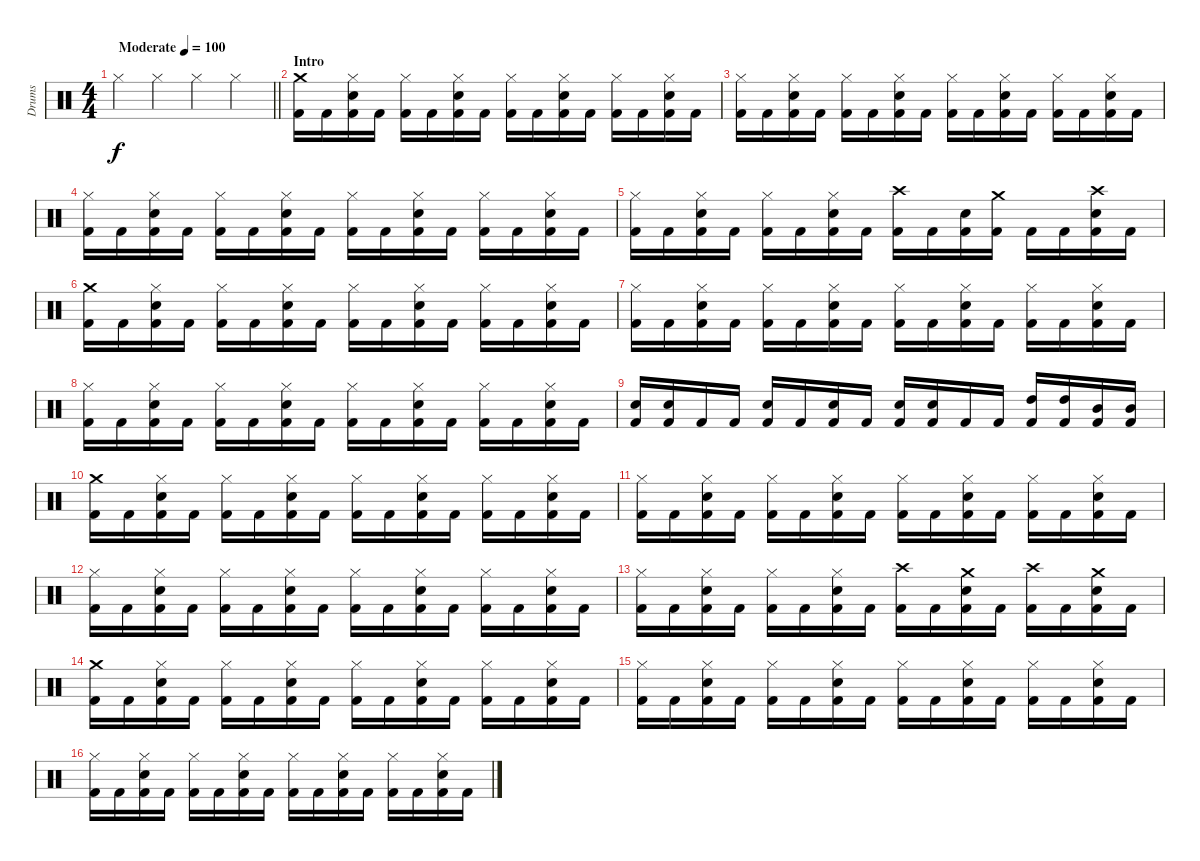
\track ("Drums" "Drums") {instrument percussion}
\staff {score}
\articulation defaults
\ts (4 4)
\tempo (100 "Moderate")
\tempo 144
\tempo (100 "Moderate")
\clef neutral
\barLineRight lightlight
\ks c "Hi-Hat (closed)".4{dy f} "Hi-Hat (closed)".4 "Hi-Hat (closed)".4 "Hi-Hat (closed)".4
|
\section ("" "Intro")
("Kick (hit) 2" "Crash medium (hit)").16 "Kick (hit) 2".16 ("Kick (hit) 2" "Snare (hit) 2" "Hi-Hat (closed)").16 "Kick (hit) 2".16 ("Kick (hit) 2" "Hi-Hat (closed)").16 "Kick (hit) 2".16 ("Kick (hit) 2" "Snare (hit) 2" "Hi-Hat (closed)").16 "Kick (hit) 2".16 ("Kick (hit) 2" "Hi-Hat (closed)").16 "Kick (hit) 2".16 ("Kick (hit) 2" "Snare (hit) 2" "Hi-Hat (closed)").16 "Kick (hit) 2".16 ("Kick (hit) 2" "Hi-Hat (closed)").16 "Kick (hit) 2".16 ("Kick (hit) 2" "Snare (hit) 2" "Hi-Hat (closed)").16 "Kick (hit) 2".16 |
("Kick (hit) 2" "Hi-Hat (closed)").16 "Kick (hit) 2".16 ("Kick (hit) 2" "Snare (hit) 2" "Hi-Hat (closed)").16 "Kick (hit) 2".16 ("Kick (hit) 2" "Hi-Hat (closed)").16 "Kick (hit) 2".16 ("Kick (hit) 2" "Snare (hit) 2" "Hi-Hat (closed)").16 "Kick (hit) 2".16 ("Kick (hit) 2" "Hi-Hat (closed)").16 "Kick (hit) 2".16 ("Kick (hit) 2" "Snare (hit) 2" "Hi-Hat (closed)").16 "Kick (hit) 2".16 ("Kick (hit) 2" "Hi-Hat (closed)").16 "Kick (hit) 2".16 ("Kick (hit) 2" "Snare (hit) 2" "Hi-Hat (closed)").16 "Kick (hit) 2".16 |
("Kick (hit) 2" "Hi-Hat (closed)").16 "Kick (hit) 2".16 ("Kick (hit) 2" "Snare (hit) 2" "Hi-Hat (closed)").16 "Kick (hit) 2".16 ("Kick (hit) 2" "Hi-Hat (closed)").16 "Kick (hit) 2".16 ("Kick (hit) 2" "Snare (hit) 2" "Hi-Hat (closed)").16 "Kick (hit) 2".16 ("Kick (hit) 2" "Hi-Hat (closed)").16 "Kick (hit) 2".16 ("Kick (hit) 2" "Snare (hit) 2" "Hi-Hat (closed)").16 "Kick (hit) 2".16 ("Kick (hit) 2" "Hi-Hat (closed)").16 "Kick (hit) 2".16 ("Kick (hit) 2" "Snare (hit) 2" "Hi-Hat (closed)").16 "Kick (hit) 2".16 |
("Kick (hit) 2" "Hi-Hat (closed)").16 "Kick (hit) 2".16 ("Kick (hit) 2" "Snare (hit) 2" "Hi-Hat (closed)").16 "Kick (hit) 2".16 ("Kick (hit) 2" "Hi-Hat (closed)").16 "Kick (hit) 2".16 ("Kick (hit) 2" "Snare (hit) 2" "Hi-Hat (closed)").16 "Kick (hit) 2".16 ("Kick (hit) 2" "Crash high (hit)").16 "Kick (hit) 2".16 ("Kick (hit) 2" "Snare (hit) 2").16 ("Kick (hit) 2" "Crash medium (hit)").16 "Kick (hit) 2".16 "Kick (hit) 2".16 ("Kick (hit) 2" "Snare (hit) 2" "Crash high (hit)").16 "Kick (hit) 2".16 |
("Kick (hit) 2" "Crash medium (hit)").16 "Kick (hit) 2".16 ("Kick (hit) 2" "Snare (hit) 2" "Hi-Hat (closed)").16 "Kick (hit) 2".16 ("Kick (hit) 2" "Hi-Hat (closed)").16 "Kick (hit) 2".16 ("Kick (hit) 2" "Snare (hit) 2" "Hi-Hat (closed)").16 "Kick (hit) 2".16 ("Kick (hit) 2" "Hi-Hat (closed)").16 "Kick (hit) 2".16 ("Kick (hit) 2" "Snare (hit) 2" "Hi-Hat (closed)").16 "Kick (hit) 2".16 ("Kick (hit) 2" "Hi-Hat (closed)").16 "Kick (hit) 2".16 ("Kick (hit) 2" "Snare (hit) 2" "Hi-Hat (closed)").16 "Kick (hit) 2".16 |
("Kick (hit) 2" "Hi-Hat (closed)").16 "Kick (hit) 2".16 ("Kick (hit) 2" "Snare (hit) 2" "Hi-Hat (closed)").16 "Kick (hit) 2".16 ("Kick (hit) 2" "Hi-Hat (closed)").16 "Kick (hit) 2".16 ("Kick (hit) 2" "Snare (hit) 2" "Hi-Hat (closed)").16 "Kick (hit) 2".16 ("Kick (hit) 2" "Hi-Hat (closed)").16 "Kick (hit) 2".16 ("Kick (hit) 2" "Snare (hit) 2" "Hi-Hat (closed)").16 "Kick (hit) 2".16 ("Kick (hit) 2" "Hi-Hat (closed)").16 "Kick (hit) 2".16 ("Kick (hit) 2" "Snare (hit) 2" "Hi-Hat (closed)").16 "Kick (hit) 2".16 |
("Kick (hit) 2" "Hi-Hat (closed)").16 "Kick (hit) 2".16 ("Kick (hit) 2" "Snare (hit) 2" "Hi-Hat (closed)").16 "Kick (hit) 2".16 ("Kick (hit) 2" "Hi-Hat (closed)").16 "Kick (hit) 2".16 ("Kick (hit) 2" "Snare (hit) 2" "Hi-Hat (closed)").16 "Kick (hit) 2".16 ("Kick (hit) 2" "Hi-Hat (closed)").16 "Kick (hit) 2".16 ("Kick (hit) 2" "Snare (hit) 2" "Hi-Hat (closed)").16 "Kick (hit) 2".16 ("Kick (hit) 2" "Hi-Hat (closed)").16 "Kick (hit) 2".16 ("Kick (hit) 2" "Snare (hit) 2" "Hi-Hat (closed)").16 "Kick (hit) 2".16 |
("Kick (hit) 2" "Snare (hit) 2").16 ("Kick (hit) 2" "Snare (hit) 2").16 "Kick (hit) 2".16 "Kick (hit) 2".16 ("Kick (hit) 2" "Snare (hit) 2").16 "Kick (hit) 2".16 ("Kick (hit) 2" "Snare (hit) 2").16 "Kick (hit) 2".16 ("Kick (hit) 2" "Snare (hit) 2").16 ("Kick (hit) 2" "Snare (hit) 2").16 "Kick (hit) 2".16 "Kick (hit) 2".16 ("Kick (hit) 2" "High Tom (hit)").16 ("Kick (hit) 2" "High Tom (hit)").16 ("Kick (hit) 2" "Mid Tom (hit)").16 ("Kick (hit) 2" "Mid Tom (hit)").16 |
("Kick (hit) 2" "Crash medium (hit)").16 "Kick (hit) 2".16 ("Kick (hit) 2" "Snare (hit) 2" "Hi-Hat (closed)").16 "Kick (hit) 2".16 ("Kick (hit) 2" "Hi-Hat (closed)").16 "Kick (hit) 2".16 ("Kick (hit) 2" "Snare (hit) 2" "Hi-Hat (closed)").16 "Kick (hit) 2".16 ("Kick (hit) 2" "Hi-Hat (closed)").16 "Kick (hit) 2".16 ("Kick (hit) 2" "Snare (hit) 2" "Hi-Hat (closed)").16 "Kick (hit) 2".16 ("Kick (hit) 2" "Hi-Hat (closed)").16 "Kick (hit) 2".16 ("Kick (hit) 2" "Snare (hit) 2" "Hi-Hat (closed)").16 "Kick (hit) 2".16 |
("Kick (hit) 2" "Hi-Hat (closed)").16 "Kick (hit) 2".16 ("Kick (hit) 2" "Snare (hit) 2" "Hi-Hat (closed)").16 "Kick (hit) 2".16 ("Kick (hit) 2" "Hi-Hat (closed)").16 "Kick (hit) 2".16 ("Kick (hit) 2" "Snare (hit) 2" "Hi-Hat (closed)").16 "Kick (hit) 2".16 ("Kick (hit) 2" "Hi-Hat (closed)").16 "Kick (hit) 2".16 ("Kick (hit) 2" "Snare (hit) 2" "Hi-Hat (closed)").16 "Kick (hit) 2".16 ("Kick (hit) 2" "Hi-Hat (closed)").16 "Kick (hit) 2".16 ("Kick (hit) 2" "Snare (hit) 2" "Hi-Hat (closed)").16 "Kick (hit) 2".16 |
("Kick (hit) 2" "Hi-Hat (closed)").16 "Kick (hit) 2".16 ("Kick (hit) 2" "Snare (hit) 2" "Hi-Hat (closed)").16 "Kick (hit) 2".16 ("Kick (hit) 2" "Hi-Hat (closed)").16 "Kick (hit) 2".16 ("Kick (hit) 2" "Snare (hit) 2" "Hi-Hat (closed)").16 "Kick (hit) 2".16 ("Kick (hit) 2" "Hi-Hat (closed)").16 "Kick (hit) 2".16 ("Kick (hit) 2" "Snare (hit) 2" "Hi-Hat (closed)").16 "Kick (hit) 2".16 ("Kick (hit) 2" "Hi-Hat (closed)").16 "Kick (hit) 2".16 ("Kick (hit) 2" "Snare (hit) 2" "Hi-Hat (closed)").16 "Kick (hit) 2".16 |
("Kick (hit) 2" "Hi-Hat (closed)").16 "Kick (hit) 2".16 ("Kick (hit) 2" "Snare (hit) 2" "Hi-Hat (closed)").16 "Kick (hit) 2".16 ("Kick (hit) 2" "Hi-Hat (closed)").16 "Kick (hit) 2".16 ("Kick (hit) 2" "Snare (hit) 2" "Hi-Hat (closed)").16 "Kick (hit) 2".16 ("Kick (hit) 2" "Crash high (hit)").16 "Kick (hit) 2".16 ("Kick (hit) 2" "Snare (hit) 2" "Crash medium (hit)").16 "Kick (hit) 2".16 ("Kick (hit) 2" "Crash high (hit)").16 "Kick (hit) 2".16 ("Kick (hit) 2" "Snare (hit) 2" "Crash medium (hit)").16 "Kick (hit) 2".16 |
("Kick (hit) 2" "Crash medium (hit)").16 "Kick (hit) 2".16 ("Kick (hit) 2" "Snare (hit) 2" "Hi-Hat (closed)").16 "Kick (hit) 2".16 ("Kick (hit) 2" "Hi-Hat (closed)").16 "Kick (hit) 2".16 ("Kick (hit) 2" "Snare (hit) 2" "Hi-Hat (closed)").16 "Kick (hit) 2".16 ("Kick (hit) 2" "Hi-Hat (closed)").16 "Kick (hit) 2".16 ("Kick (hit) 2" "Snare (hit) 2" "Hi-Hat (closed)").16 "Kick (hit) 2".16 ("Kick (hit) 2" "Hi-Hat (closed)").16 "Kick (hit) 2".16 ("Kick (hit) 2" "Snare (hit) 2" "Hi-Hat (closed)").16 "Kick (hit) 2".16 |
("Kick (hit) 2" "Hi-Hat (closed)").16 "Kick (hit) 2".16 ("Kick (hit) 2" "Snare (hit) 2" "Hi-Hat (closed)").16 "Kick (hit) 2".16 ("Kick (hit) 2" "Hi-Hat (closed)").16 "Kick (hit) 2".16 ("Kick (hit) 2" "Snare (hit) 2" "Hi-Hat (closed)").16 "Kick (hit) 2".16 ("Kick (hit) 2" "Hi-Hat (closed)").16 "Kick (hit) 2".16 ("Kick (hit) 2" "Snare (hit) 2" "Hi-Hat (closed)").16 "Kick (hit) 2".16 ("Kick (hit) 2" "Hi-Hat (closed)").16 "Kick (hit) 2".16 ("Kick (hit) 2" "Snare (hit) 2" "Hi-Hat (closed)").16 "Kick (hit) 2".16 |
("Kick (hit) 2" "Hi-Hat (closed)").16 "Kick (hit) 2".16 ("Kick (hit) 2" "Snare (hit) 2" "Hi-Hat (closed)").16 "Kick (hit) 2".16 ("Kick (hit) 2" "Hi-Hat (closed)").16 "Kick (hit) 2".16 ("Kick (hit) 2" "Snare (hit) 2" "Hi-Hat (closed)").16 "Kick (hit) 2".16 ("Kick (hit) 2" "Hi-Hat (closed)").16 "Kick (hit) 2".16 ("Kick (hit) 2" "Snare (hit) 2" "Hi-Hat (closed)").16 "Kick (hit) 2".16 ("Kick (hit) 2" "Hi-Hat (closed)").16 "Kick (hit) 2".16 ("Kick (hit) 2" "Snare (hit) 2" "Hi-Hat (closed)").16 "Kick (hit) 2".16
